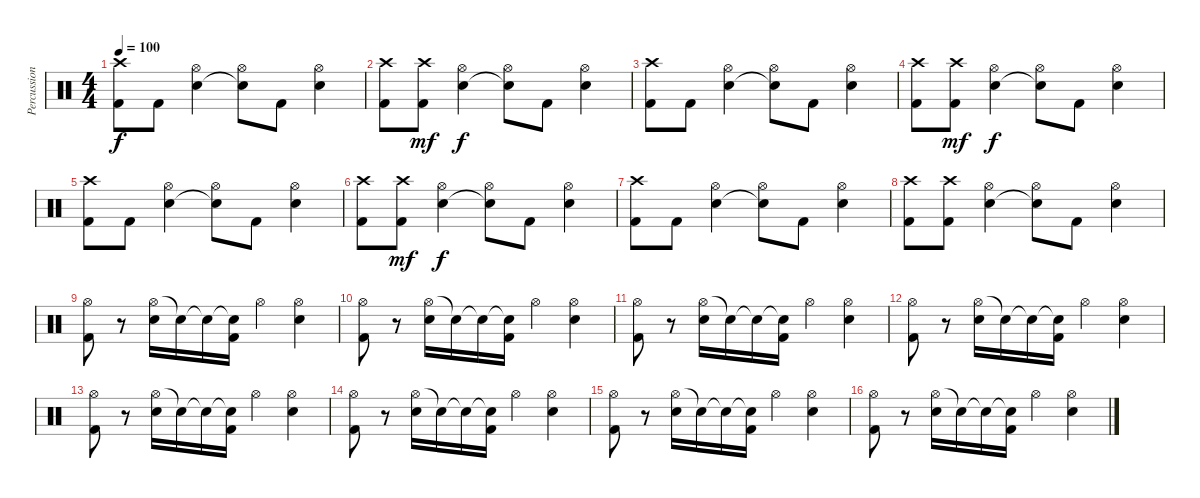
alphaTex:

\track ("Percussion" "Percussion") {instrument percussion}
\staff {score}
\articulation defaults
\ts (4 4)
\tempo 100
\clef neutral
\ks c
("Crash high (hit)" "Kick (hit) 2").8{dy f} "Kick (hit) 2".8 ("Hi-Hat (open)" "Snare (hit) 2").4 ("Hi-Hat (open)" "Snare (hit) 2"{t}).8 "Kick (hit) 2".8 ("Hi-Hat (open)" "Snare (hit) 2").4 |
("Crash high (hit)" "Kick (hit) 2").8 ("Crash high (hit)" "Kick (hit) 2").8{dy mf} ("Hi-Hat (open)" "Snare (hit) 2").4{dy f} ("Hi-Hat (open)" "Snare (hit) 2"{t}).8 "Kick (hit) 2".8 ("Hi-Hat (open)" "Snare (hit) 2").4 |
("Crash high (hit)" "Kick (hit) 2").8 "Kick (hit) 2".8 ("Hi-Hat (open)" "Snare (hit) 2").4 ("Hi-Hat (open)" "Snare (hit) 2"{t}).8 "Kick (hit) 2".8 ("Hi-Hat (open)" "Snare (hit) 2").4 |
("Crash high (hit)" "Kick (hit) 2").8 ("Crash high (hit)" "Kick (hit) 2").8{dy mf} ("Hi-Hat (open)" "Snare (hit) 2").4{dy f} ("Hi-Hat (open)" "Snare (hit) 2"{t}).8 "Kick (hit) 2".8 ("Hi-Hat (open)" "Snare (hit) 2").4 |
("Crash high (hit)" "Kick (hit) 2").8 "Kick (hit) 2".8 ("Hi-Hat (open)" "Snare (hit) 2").4 ("Hi-Hat (open)" "Snare (hit) 2"{t}).8 "Kick (hit) 2".8 ("Hi-Hat (open)" "Snare (hit) 2").4 |
("Crash high (hit)" "Kick (hit) 2").8 ("Crash high (hit)" "Kick (hit) 2").8{dy mf} ("Hi-Hat (open)" "Snare (hit) 2").4{dy f} ("Hi-Hat (open)" "Snare (hit) 2"{t}).8 "Kick (hit) 2".8 ("Hi-Hat (open)" "Snare (hit) 2").4 |
("Crash high (hit)" "Kick (hit) 2").8 "Kick (hit) 2".8 ("Hi-Hat (open)" "Snare (hit) 2").4 ("Hi-Hat (open)" "Snare (hit) 2"{t}).8 "Kick (hit) 2".8 ("Hi-Hat (open)" "Snare (hit) 2").4 |
("Crash high (hit)" "Kick (hit) 2").8 ("Crash high (hit)" "Kick (hit) 2").8 ("Hi-Hat (open)" "Snare (hit) 2").4 ("Hi-Hat (open)" "Snare (hit) 2"{t}).8 "Kick (hit) 2".8 ("Hi-Hat (open)" "Snare (hit) 2").4 |
("Hi-Hat (open)" "Kick (hit) 2").8 r.8 ("Hi-Hat (open)" "Snare (hit) 2").16 "Snare (hit) 2"{t}.16 "Snare (hit) 2"{t}.16 ("Snare (hit) 2"{t} "Kick (hit) 2").16 "Hi-Hat (open)".4 ("Hi-Hat (open)" "Snare (hit) 2").4 |
("Hi-Hat (open)" "Kick (hit) 2").8 r.8 ("Hi-Hat (open)" "Snare (hit) 2").16 "Snare (hit) 2"{t}.16 "Snare (hit) 2"{t}.16 ("Snare (hit) 2"{t} "Kick (hit) 2").16 "Hi-Hat (open)".4 ("Hi-Hat (open)" "Snare (hit) 2").4 |
("Hi-Hat (open)" "Kick (hit) 2").8 r.8 ("Hi-Hat (open)" "Snare (hit) 2").16 "Snare (hit) 2"{t}.16 "Snare (hit) 2"{t}.16 ("Snare (hit) 2"{t} "Kick (hit) 2").16 "Hi-Hat (open)".4 ("Hi-Hat (open)" "Snare (hit) 2").4 |
("Hi-Hat (open)" "Kick (hit) 2").8 r.8 ("Hi-Hat (open)" "Snare (hit) 2").16 "Snare (hit) 2"{t}.16 "Snare (hit) 2"{t}.16 ("Snare (hit) 2"{t} "Kick (hit) 2").16 "Hi-Hat (open)".4 ("Hi-Hat (open)" "Snare (hit) 2").4 |
("Hi-Hat (open)" "Kick (hit) 2").8 r.8 ("Hi-Hat (open)" "Snare (hit) 2").16 "Snare (hit) 2"{t}.16 "Snare (hit) 2"{t}.16 ("Snare (hit) 2"{t} "Kick (hit) 2").16 "Hi-Hat (open)".4 ("Hi-Hat (open)" "Snare (hit) 2").4 |
("Hi-Hat (open)" "Kick (hit) 2").8 r.8 ("Hi-Hat (open)" "Snare (hit) 2").16 "Snare (hit) 2"{t}.16 "Snare (hit) 2"{t}.16 ("Snare (hit) 2"{t} "Kick (hit) 2").16 "Hi-Hat (open)".4 ("Hi-Hat (open)" "Snare (hit) 2").4 |
("Hi-Hat (open)" "Kick (hit) 2").8 r.8 ("Hi-Hat (open)" "Snare (hit) 2").16 "Snare (hit) 2"{t}.16 "Snare (hit) 2"{t}.16 ("Snare (hit) 2"{t} "Kick (hit) 2").16 "Hi-Hat (open)".4 ("Hi-Hat (open)" "Snare (hit) 2").4 |
("Hi-Hat (open)" "Kick (hit) 2").8 r.8 ("Hi-Hat (open)" "Snare (hit) 2").16 "Snare (hit) 2"{t}.16 "Snare (hit) 2"{t}.16 ("Snare (hit) 2"{t} "Kick (hit) 2").16 "Hi-Hat (open)".4 ("Hi-Hat (open)" "Snare (hit) 2").4
